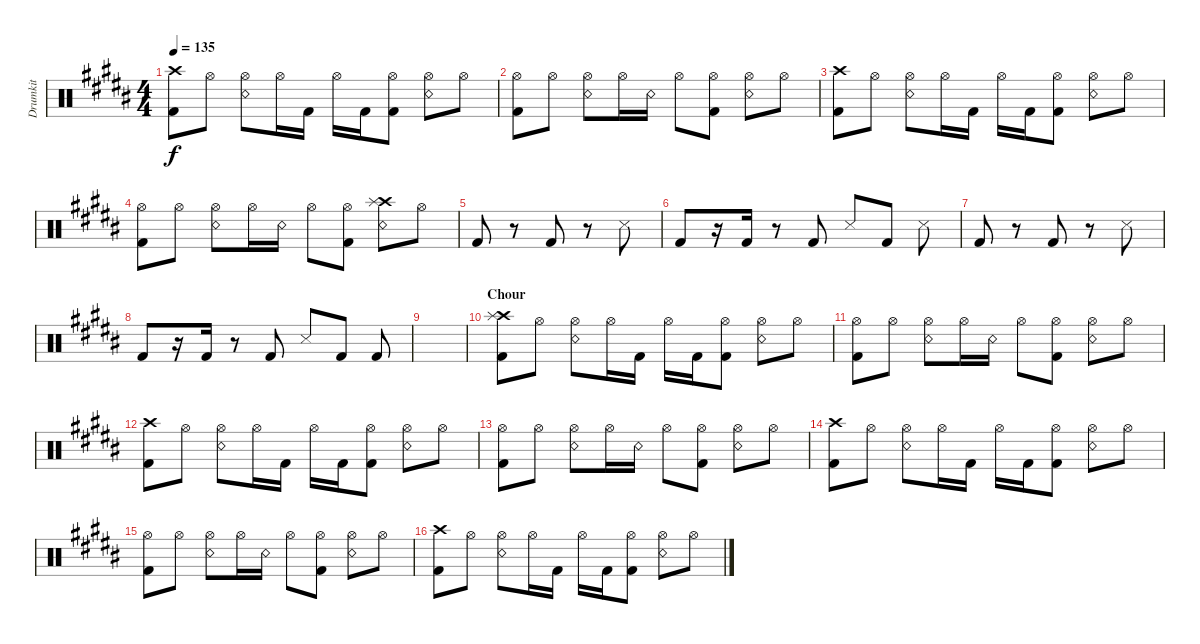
\track ("Drumkit" "Drumkit") {instrument percussion}
\staff {score}
\articulation defaults
\ts (4 4)
\tempo 135
\clef neutral
\ks b
("Kick (hit) 2" "Crash high (hit)").8{dy f} "Hi-Hat (open)".8 ("Snare (rim shot)" "Hi-Hat (open)").8 "Hi-Hat (open)".16 "Kick (hit) 2".16 "Hi-Hat (open)".16 "Kick (hit) 2".16 ("Kick (hit) 2" "Hi-Hat (open)").8 ("Snare (rim shot)" "Hi-Hat (open)").8 "Hi-Hat (open)".8 |
("Kick (hit) 2" "Hi-Hat (open)").8 "Hi-Hat (open)".8 ("Snare (rim shot)" "Hi-Hat (open)").8 "Hi-Hat (open)".16 "Snare (rim shot)".16 "Hi-Hat (open)".8 ("Hi-Hat (open)" "Kick (hit) 2").8 ("Snare (rim shot)" "Hi-Hat (open)").8 "Hi-Hat (open)".8 |
("Kick (hit) 2" "Crash high (hit)").8 "Hi-Hat (open)".8 ("Snare (rim shot)" "Hi-Hat (open)").8 "Hi-Hat (open)".16 "Kick (hit) 2".16 "Hi-Hat (open)".16 "Kick (hit) 2".16 ("Kick (hit) 2" "Hi-Hat (open)").8 ("Snare (rim shot)" "Hi-Hat (open)").8 "Hi-Hat (open)".8 |
("Kick (hit) 2" "Hi-Hat (open)").8 "Hi-Hat (open)".8 ("Snare (rim shot)" "Hi-Hat (open)").8 "Hi-Hat (open)".16 "Snare (rim shot)".16 "Hi-Hat (open)".8 ("Hi-Hat (open)" "Kick (hit) 2").8 ("Snare (rim shot)" "Crash high (hit)" "Splash (hit)").8 "Hi-Hat (open)".8 |
"Kick (hit) 2".8 r.8 "Kick (hit) 2".8 r.8 "Snare (side stick) 3".8 |
"Kick (hit) 2".8 r.16 "Kick (hit) 2".16 r.8 "Kick (hit) 2".8 "Snare (side stick) 3".8 "Kick (hit) 2".8 "Snare (side stick) 3".8 |
"Kick (hit) 2".8 r.8 "Kick (hit) 2".8 r.8 "Snare (side stick) 3".8 |
"Kick (hit) 2".8 r.16 "Kick (hit) 2".16 r.8 "Kick (hit) 2".8 "Snare (side stick) 3".8 "Kick (hit) 2".8 "Kick (hit) 2".8 |
|
\section ("" "Chour")
("Kick (hit) 2" "Crash high (hit)" "Splash (hit)").8 "Hi-Hat (open)".8 ("Snare (rim shot)" "Hi-Hat (open)").8 "Hi-Hat (open)".16 "Kick (hit) 2".16 "Hi-Hat (open)".16 "Kick (hit) 2".16 ("Kick (hit) 2" "Hi-Hat (open)").8 ("Snare (rim shot)" "Hi-Hat (open)").8 "Hi-Hat (open)".8 |
("Kick (hit) 2" "Hi-Hat (open)").8 "Hi-Hat (open)".8 ("Snare (rim shot)" "Hi-Hat (open)").8 "Hi-Hat (open)".16 "Snare (rim shot)".16 "Hi-Hat (open)".8 ("Hi-Hat (open)" "Kick (hit) 2").8 ("Snare (rim shot)" "Hi-Hat (open)").8 "Hi-Hat (open)".8 |
("Kick (hit) 2" "Crash high (hit)").8 "Hi-Hat (open)".8 ("Snare (rim shot)" "Hi-Hat (open)").8 "Hi-Hat (open)".16 "Kick (hit) 2".16 "Hi-Hat (open)".16 "Kick (hit) 2".16 ("Kick (hit) 2" "Hi-Hat (open)").8 ("Snare (rim shot)" "Hi-Hat (open)").8 "Hi-Hat (open)".8 |
("Kick (hit) 2" "Hi-Hat (open)").8 "Hi-Hat (open)".8 ("Snare (rim shot)" "Hi-Hat (open)").8 "Hi-Hat (open)".16 "Snare (rim shot)".16 "Hi-Hat (open)".8 ("Hi-Hat (open)" "Kick (hit) 2").8 ("Snare (rim shot)" "Hi-Hat (open)").8 "Hi-Hat (open)".8 |
("Kick (hit) 2" "Crash high (hit)").8 "Hi-Hat (open)".8 ("Snare (rim shot)" "Hi-Hat (open)").8 "Hi-Hat (open)".16 "Kick (hit) 2".16 "Hi-Hat (open)".16 "Kick (hit) 2".16 ("Kick (hit) 2" "Hi-Hat (open)").8 ("Snare (rim shot)" "Hi-Hat (open)").8 "Hi-Hat (open)".8 |
("Kick (hit) 2" "Hi-Hat (open)").8 "Hi-Hat (open)".8 ("Snare (rim shot)" "Hi-Hat (open)").8 "Hi-Hat (open)".16 "Snare (rim shot)".16 "Hi-Hat (open)".8 ("Hi-Hat (open)" "Kick (hit) 2").8 ("Snare (rim shot)" "Hi-Hat (open)").8 "Hi-Hat (open)".8 |
("Kick (hit) 2" "Crash high (hit)").8 "Hi-Hat (open)".8 ("Snare (rim shot)" "Hi-Hat (open)").8 "Hi-Hat (open)".16 "Kick (hit) 2".16 "Hi-Hat (open)".16 "Kick (hit) 2".16 ("Kick (hit) 2" "Hi-Hat (open)").8 ("Snare (rim shot)" "Hi-Hat (open)").8 "Hi-Hat (open)".8
